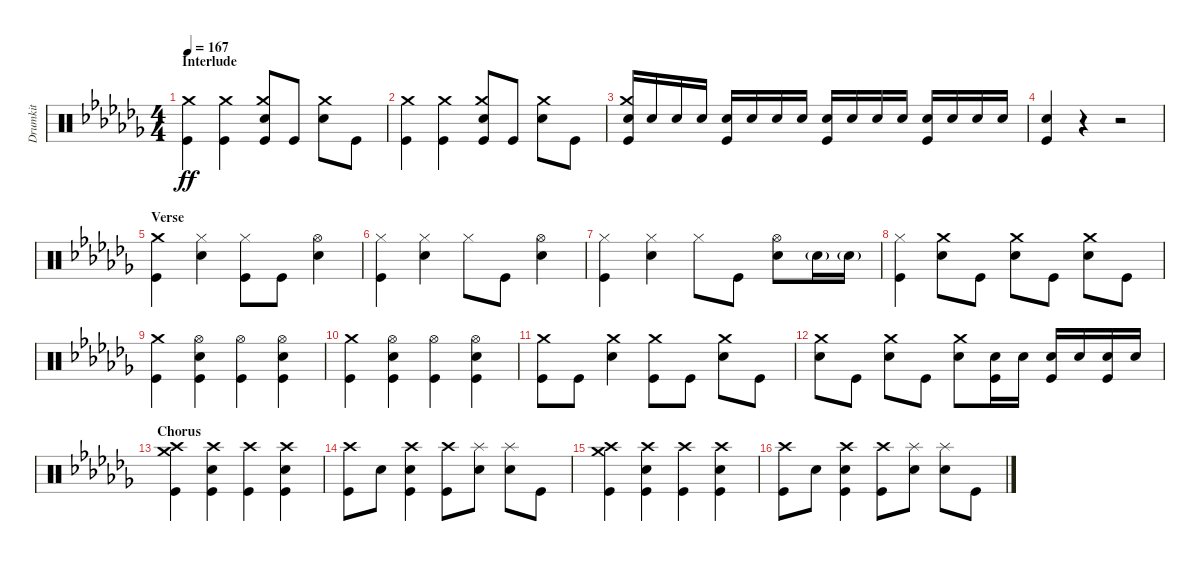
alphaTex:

\track ("Drumkit" "Drumkit") {instrument percussion}
\staff {score}
\articulation defaults
\ts (4 4)
\section ("" "Interlude")
\tempo 167
\clef neutral
\ks abminor
("Kick (hit)" "Crash medium (hit)").4{dy ff} ("Kick (hit)" "Crash medium (hit)").4 ("Snare (hit) 2" "Kick (hit)" "Crash medium (hit)").8 "Kick (hit)".8 ("Snare (hit) 2" "Crash medium (hit)").8 "Kick (hit)".8 |
("Kick (hit)" "Crash medium (hit)").4 ("Kick (hit)" "Crash medium (hit)").4 ("Snare (hit) 2" "Kick (hit)" "Crash medium (hit)").8 "Kick (hit)".8 ("Snare (hit) 2" "Crash medium (hit)").8 "Kick (hit)".8 |
("Snare (hit) 2" "Crash medium (hit)" "Kick (hit)").16 "Snare (hit) 2".16 "Snare (hit) 2".16 "Snare (hit) 2".16 ("Snare (hit) 2" "Kick (hit)").16 "Snare (hit) 2".16 "Snare (hit) 2".16 "Snare (hit) 2".16 ("Snare (hit) 2" "Kick (hit)").16 "Snare (hit) 2".16 "Snare (hit) 2".16 "Snare (hit) 2".16 ("Snare (hit) 2" "Kick (hit)").16 "Snare (hit) 2".16 "Snare (hit) 2".16 "Snare (hit) 2".16 |
("Kick (hit)" "Snare (hit) 2").4 r.4 r.2 |
\section ("" "Verse")
("Crash medium (hit)" "Kick (hit)").4 ("Snare (hit) 2" "Hi-Hat (closed)").4 ("Kick (hit)" "Hi-Hat (closed)").8 "Kick (hit)".8 ("Hi-Hat (open)" "Snare (hit) 2").4 |
("Kick (hit)" "Hi-Hat (closed)").4 ("Snare (hit) 2" "Hi-Hat (closed)").4 "Hi-Hat (closed)".8 "Kick (hit)".8 ("Hi-Hat (open)" "Snare (hit) 2").4 |
("Kick (hit)" "Hi-Hat (closed)").4 ("Snare (hit) 2" "Hi-Hat (closed)").4 "Hi-Hat (closed)".8 "Kick (hit)".8 ("Hi-Hat (open)" "Snare (hit) 2").8 "Snare (hit) 2"{g}.16 "Snare (hit) 2"{g}.16 |
("Kick (hit)" "Hi-Hat (closed)").4 ("Snare (hit) 2" "Crash medium (hit)").8 "Kick (hit)".8 ("Snare (hit) 2" "Crash medium (hit)").8 "Kick (hit)".8 ("Snare (hit) 2" "Crash medium (hit)").8 "Kick (hit)".8 |
("Kick (hit)" "Crash medium (hit)").4 ("Kick (hit)" "Snare (hit) 2" "Hi-Hat (open)").4 ("Kick (hit)" "Hi-Hat (open)").4 ("Kick (hit)" "Snare (hit) 2" "Hi-Hat (open)").4 |
("Kick (hit)" "Crash medium (hit)").4 ("Kick (hit)" "Snare (hit) 2" "Hi-Hat (open)").4 ("Kick (hit)" "Hi-Hat (open)").4 ("Kick (hit)" "Snare (hit) 2" "Hi-Hat (open)").4 |
("Crash medium (hit)" "Kick (hit)").8 "Kick (hit)".8 ("Snare (hit) 2" "Crash medium (hit)").4 ("Crash medium (hit)" "Kick (hit)").8 "Kick (hit)".8 ("Snare (hit) 2" "Crash medium (hit)").8 "Kick (hit)".8 |
("Crash medium (hit)" "Snare (hit) 2").8 "Kick (hit)".8 ("Snare (hit) 2" "Crash medium (hit)").8 "Kick (hit)".8 ("Snare (hit) 2" "Crash medium (hit)").8 ("Snare (hit) 2" "Kick (hit)").16 "Snare (hit) 2".16 ("Snare (hit) 2" "Kick (hit)").16 "Snare (hit) 2".16 ("Snare (hit) 2" "Kick (hit)").16 "Snare (hit) 2".16 |
\section ("" "Chorus")
("Crash high (hit)" "Crash medium (hit)" "Kick (hit)").4 ("Snare (hit) 2" "Kick (hit)" "Crash high (hit)").4 ("Kick (hit)" "Crash high (hit)").4 ("Snare (hit) 2" "Kick (hit)" "Crash high (hit)").4 |
("Kick (hit)" "Crash high (hit)").8 "Snare (hit) 2".8 ("Snare (hit) 2" "Kick (hit)" "Crash high (hit)").4 ("Kick (hit)" "Crash high (hit)").8 ("Snare (hit) 2" "Splash (hit)").8 ("Snare (hit) 2" "Splash (hit)").8 "Kick (hit)".8 |
("Crash high (hit)" "Crash medium (hit)" "Kick (hit)").4 ("Snare (hit) 2" "Kick (hit)" "Crash high (hit)").4 ("Kick (hit)" "Crash high (hit)").4 ("Snare (hit) 2" "Kick (hit)" "Crash high (hit)").4 |
("Kick (hit)" "Crash high (hit)").8 "Snare (hit) 2".8 ("Snare (hit) 2" "Kick (hit)" "Crash high (hit)").4 ("Kick (hit)" "Crash high (hit)").8 ("Snare (hit) 2" "Splash (hit)").8 ("Snare (hit) 2" "Splash (hit)").8 "Kick (hit)".8
